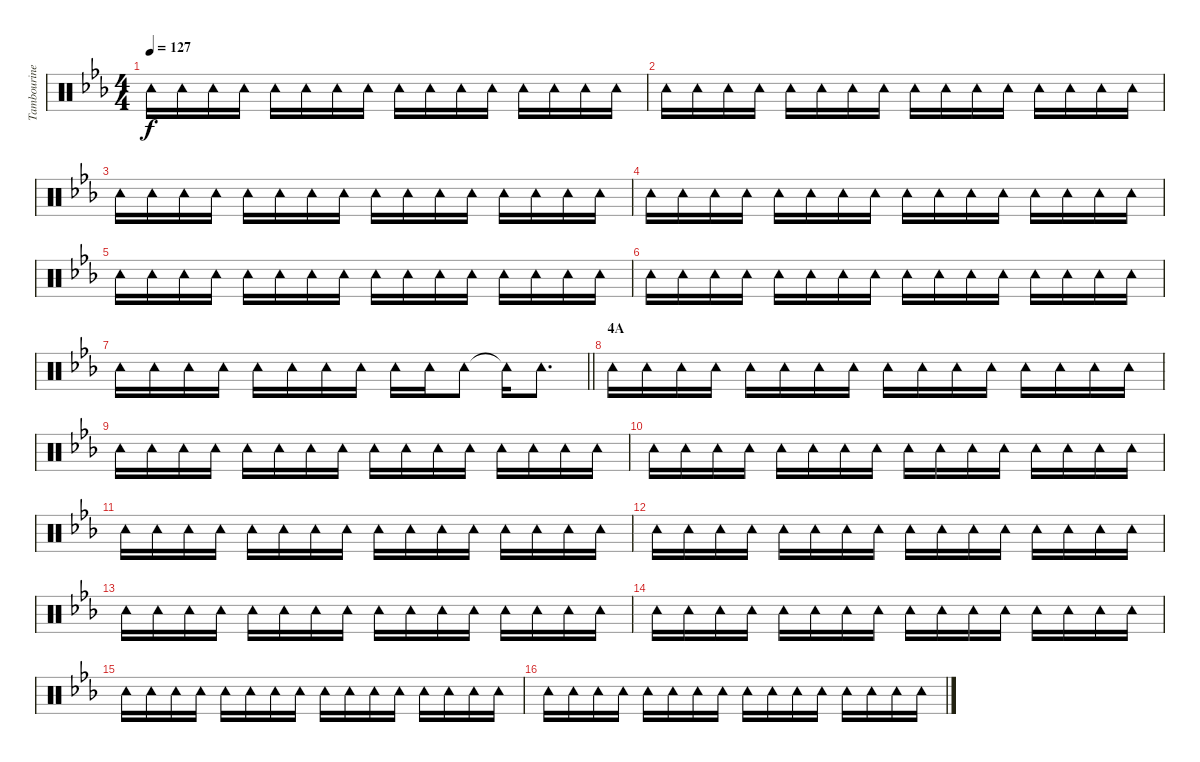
\track ("Tambourine" "Tambourine") {instrument percussion}
\staff {score}
\articulation defaults
\ts (4 4)
\tempo 127
\clef neutral
\ks eb "Tambourine (hit)".16{dy f} "Tambourine (hit)".16 "Tambourine (hit)".16 "Tambourine (hit)".16 "Tambourine (hit)".16 "Tambourine (hit)".16 "Tambourine (hit)".16 "Tambourine (hit)".16 "Tambourine (hit)".16 "Tambourine (hit)".16 "Tambourine (hit)".16 "Tambourine (hit)".16 "Tambourine (hit)".16 "Tambourine (hit)".16 "Tambourine (hit)".16 "Tambourine (hit)".16
|
"Tambourine (hit)".16 "Tambourine (hit)".16 "Tambourine (hit)".16 "Tambourine (hit)".16 "Tambourine (hit)".16 "Tambourine (hit)".16 "Tambourine (hit)".16 "Tambourine (hit)".16 "Tambourine (hit)".16 "Tambourine (hit)".16 "Tambourine (hit)".16 "Tambourine (hit)".16 "Tambourine (hit)".16 "Tambourine (hit)".16 "Tambourine (hit)".16 "Tambourine (hit)".16 |
"Tambourine (hit)".16 "Tambourine (hit)".16 "Tambourine (hit)".16 "Tambourine (hit)".16 "Tambourine (hit)".16 "Tambourine (hit)".16 "Tambourine (hit)".16 "Tambourine (hit)".16 "Tambourine (hit)".16 "Tambourine (hit)".16 "Tambourine (hit)".16 "Tambourine (hit)".16 "Tambourine (hit)".16 "Tambourine (hit)".16 "Tambourine (hit)".16 "Tambourine (hit)".16 |
"Tambourine (hit)".16 "Tambourine (hit)".16 "Tambourine (hit)".16 "Tambourine (hit)".16 "Tambourine (hit)".16 "Tambourine (hit)".16 "Tambourine (hit)".16 "Tambourine (hit)".16 "Tambourine (hit)".16 "Tambourine (hit)".16 "Tambourine (hit)".16 "Tambourine (hit)".16 "Tambourine (hit)".16 "Tambourine (hit)".16 "Tambourine (hit)".16 "Tambourine (hit)".16 |
"Tambourine (hit)".16 "Tambourine (hit)".16 "Tambourine (hit)".16 "Tambourine (hit)".16 "Tambourine (hit)".16 "Tambourine (hit)".16 "Tambourine (hit)".16 "Tambourine (hit)".16 "Tambourine (hit)".16 "Tambourine (hit)".16 "Tambourine (hit)".16 "Tambourine (hit)".16 "Tambourine (hit)".16 "Tambourine (hit)".16 "Tambourine (hit)".16 "Tambourine (hit)".16 |
"Tambourine (hit)".16 "Tambourine (hit)".16 "Tambourine (hit)".16 "Tambourine (hit)".16 "Tambourine (hit)".16 "Tambourine (hit)".16 "Tambourine (hit)".16 "Tambourine (hit)".16 "Tambourine (hit)".16 "Tambourine (hit)".16 "Tambourine (hit)".16 "Tambourine (hit)".16 "Tambourine (hit)".16 "Tambourine (hit)".16 "Tambourine (hit)".16 "Tambourine (hit)".16 |
\barLineRight lightlight "Tambourine (hit)".16 "Tambourine (hit)".16 "Tambourine (hit)".16 "Tambourine (hit)".16 "Tambourine (hit)".16 "Tambourine (hit)".16 "Tambourine (hit)".16 "Tambourine (hit)".16 "Tambourine (hit)".16 "Tambourine (hit)".16 "Tambourine (hit)".8 "Tambourine (hit)"{t}.16 "Tambourine (hit)".8{d}
|
\section ("" "4A")
"Tambourine (hit)".16 "Tambourine (hit)".16 "Tambourine (hit)".16 "Tambourine (hit)".16 "Tambourine (hit)".16 "Tambourine (hit)".16 "Tambourine (hit)".16 "Tambourine (hit)".16 "Tambourine (hit)".16 "Tambourine (hit)".16 "Tambourine (hit)".16 "Tambourine (hit)".16 "Tambourine (hit)".16 "Tambourine (hit)".16 "Tambourine (hit)".16 "Tambourine (hit)".16 |
"Tambourine (hit)".16 "Tambourine (hit)".16 "Tambourine (hit)".16 "Tambourine (hit)".16 "Tambourine (hit)".16 "Tambourine (hit)".16 "Tambourine (hit)".16 "Tambourine (hit)".16 "Tambourine (hit)".16 "Tambourine (hit)".16 "Tambourine (hit)".16 "Tambourine (hit)".16 "Tambourine (hit)".16 "Tambourine (hit)".16 "Tambourine (hit)".16 "Tambourine (hit)".16 |
"Tambourine (hit)".16 "Tambourine (hit)".16 "Tambourine (hit)".16 "Tambourine (hit)".16 "Tambourine (hit)".16 "Tambourine (hit)".16 "Tambourine (hit)".16 "Tambourine (hit)".16 "Tambourine (hit)".16 "Tambourine (hit)".16 "Tambourine (hit)".16 "Tambourine (hit)".16 "Tambourine (hit)".16 "Tambourine (hit)".16 "Tambourine (hit)".16 "Tambourine (hit)".16 |
"Tambourine (hit)".16 "Tambourine (hit)".16 "Tambourine (hit)".16 "Tambourine (hit)".16 "Tambourine (hit)".16 "Tambourine (hit)".16 "Tambourine (hit)".16 "Tambourine (hit)".16 "Tambourine (hit)".16 "Tambourine (hit)".16 "Tambourine (hit)".16 "Tambourine (hit)".16 "Tambourine (hit)".16 "Tambourine (hit)".16 "Tambourine (hit)".16 "Tambourine (hit)".16 |
"Tambourine (hit)".16 "Tambourine (hit)".16 "Tambourine (hit)".16 "Tambourine (hit)".16 "Tambourine (hit)".16 "Tambourine (hit)".16 "Tambourine (hit)".16 "Tambourine (hit)".16 "Tambourine (hit)".16 "Tambourine (hit)".16 "Tambourine (hit)".16 "Tambourine (hit)".16 "Tambourine (hit)".16 "Tambourine (hit)".16 "Tambourine (hit)".16 "Tambourine (hit)".16 |
"Tambourine (hit)".16 "Tambourine (hit)".16 "Tambourine (hit)".16 "Tambourine (hit)".16 "Tambourine (hit)".16 "Tambourine (hit)".16 "Tambourine (hit)".16 "Tambourine (hit)".16 "Tambourine (hit)".16 "Tambourine (hit)".16 "Tambourine (hit)".16 "Tambourine (hit)".16 "Tambourine (hit)".16 "Tambourine (hit)".16 "Tambourine (hit)".16 "Tambourine (hit)".16 |
"Tambourine (hit)".16 "Tambourine (hit)".16 "Tambourine (hit)".16 "Tambourine (hit)".16 "Tambourine (hit)".16 "Tambourine (hit)".16 "Tambourine (hit)".16 "Tambourine (hit)".16 "Tambourine (hit)".16 "Tambourine (hit)".16 "Tambourine (hit)".16 "Tambourine (hit)".16 "Tambourine (hit)".16 "Tambourine (hit)".16 "Tambourine (hit)".16 "Tambourine (hit)".16 |
"Tambourine (hit)".16 "Tambourine (hit)".16 "Tambourine (hit)".16 "Tambourine (hit)".16 "Tambourine (hit)".16 "Tambourine (hit)".16 "Tambourine (hit)".16 "Tambourine (hit)".16 "Tambourine (hit)".16 "Tambourine (hit)".16 "Tambourine (hit)".16 "Tambourine (hit)".16 "Tambourine (hit)".16 "Tambourine (hit)".16 "Tambourine (hit)".16 "Tambourine (hit)".16 |
"Tambourine (hit)".16 "Tambourine (hit)".16 "Tambourine (hit)".16 "Tambourine (hit)".16 "Tambourine (hit)".16 "Tambourine (hit)".16 "Tambourine (hit)".16 "Tambourine (hit)".16 "Tambourine (hit)".16 "Tambourine (hit)".16 "Tambourine (hit)".16 "Tambourine (hit)".16 "Tambourine (hit)".16 "Tambourine (hit)".16 "Tambourine (hit)".16 "Tambourine (hit)".16
